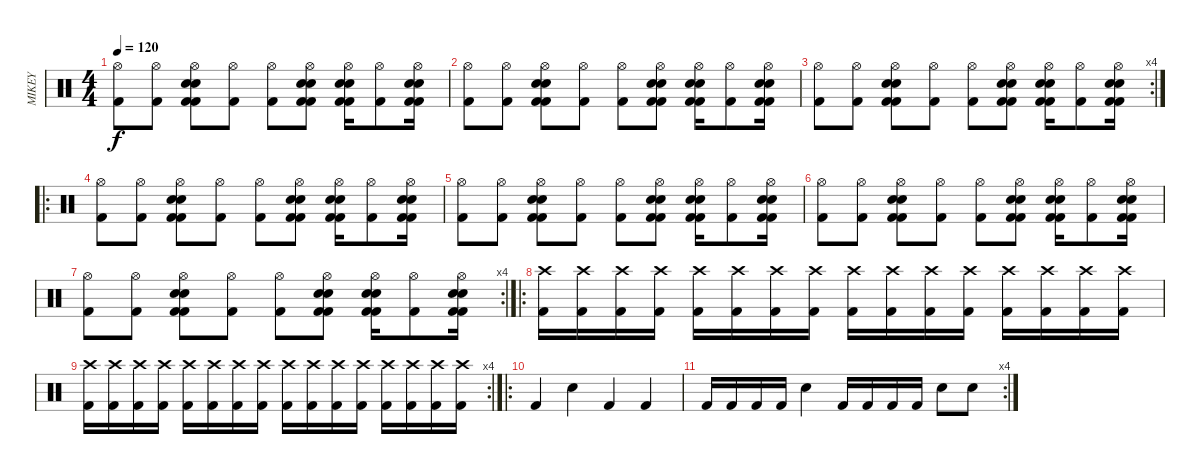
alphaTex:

\track ("MIKEY" "MIKEY") {instrument percussion}
\staff {score}
\articulation defaults
\ts (4 4)
\tempo 120
\clef neutral
\ks c
("Kick (hit) 2" "Hi-Hat (open)").8{dy f} ("Kick (hit) 2" "Hi-Hat (open)").8 ("Snare (hit) 2" "Kick (hit) 2" "Snare (hit) 2" "Kick (hit) 2" "Hi-Hat (open)").8 ("Kick (hit) 2" "Hi-Hat (open)").8 ("Kick (hit) 2" "Hi-Hat (open)").8 ("Snare (hit) 2" "Snare (hit) 2" "Kick (hit) 2" "Kick (hit) 2" "Hi-Hat (open)").8 ("Snare (hit) 2" "Snare (hit) 2" "Kick (hit) 2" "Kick (hit) 2" "Hi-Hat (open)").16 ("Kick (hit) 2" "Hi-Hat (open)").8 ("Snare (hit) 2" "Snare (hit) 2" "Kick (hit) 2" "Kick (hit) 2" "Hi-Hat (open)").16 |
("Kick (hit) 2" "Hi-Hat (open)").8 ("Kick (hit) 2" "Hi-Hat (open)").8 ("Snare (hit) 2" "Kick (hit) 2" "Snare (hit) 2" "Kick (hit) 2" "Hi-Hat (open)").8 ("Kick (hit) 2" "Hi-Hat (open)").8 ("Kick (hit) 2" "Hi-Hat (open)").8 ("Snare (hit) 2" "Snare (hit) 2" "Kick (hit) 2" "Kick (hit) 2" "Hi-Hat (open)").8 ("Snare (hit) 2" "Snare (hit) 2" "Kick (hit) 2" "Kick (hit) 2" "Hi-Hat (open)").16 ("Kick (hit) 2" "Hi-Hat (open)").8 ("Snare (hit) 2" "Snare (hit) 2" "Kick (hit) 2" "Kick (hit) 2" "Hi-Hat (open)").16 |
\rc 4
("Kick (hit) 2" "Hi-Hat (open)").8 ("Kick (hit) 2" "Hi-Hat (open)").8 ("Snare (hit) 2" "Kick (hit) 2" "Snare (hit) 2" "Kick (hit) 2" "Hi-Hat (open)").8 ("Kick (hit) 2" "Hi-Hat (open)").8 ("Kick (hit) 2" "Hi-Hat (open)").8 ("Snare (hit) 2" "Snare (hit) 2" "Kick (hit) 2" "Kick (hit) 2" "Hi-Hat (open)").8 ("Snare (hit) 2" "Snare (hit) 2" "Kick (hit) 2" "Kick (hit) 2" "Hi-Hat (open)").16 ("Kick (hit) 2" "Hi-Hat (open)").8 ("Snare (hit) 2" "Snare (hit) 2" "Kick (hit) 2" "Kick (hit) 2" "Hi-Hat (open)").16 |
\ro
("Kick (hit) 2" "Hi-Hat (open)").8 ("Kick (hit) 2" "Hi-Hat (open)").8 ("Snare (hit) 2" "Kick (hit) 2" "Snare (hit) 2" "Kick (hit) 2" "Hi-Hat (open)").8 ("Kick (hit) 2" "Hi-Hat (open)").8 ("Kick (hit) 2" "Hi-Hat (open)").8 ("Snare (hit) 2" "Snare (hit) 2" "Kick (hit) 2" "Kick (hit) 2" "Hi-Hat (open)").8 ("Snare (hit) 2" "Snare (hit) 2" "Kick (hit) 2" "Kick (hit) 2" "Hi-Hat (open)").16 ("Kick (hit) 2" "Hi-Hat (open)").8 ("Snare (hit) 2" "Snare (hit) 2" "Kick (hit) 2" "Kick (hit) 2" "Hi-Hat (open)").16 |
("Kick (hit) 2" "Hi-Hat (open)").8 ("Kick (hit) 2" "Hi-Hat (open)").8 ("Snare (hit) 2" "Kick (hit) 2" "Snare (hit) 2" "Kick (hit) 2" "Hi-Hat (open)").8 ("Kick (hit) 2" "Hi-Hat (open)").8 ("Kick (hit) 2" "Hi-Hat (open)").8 ("Snare (hit) 2" "Snare (hit) 2" "Kick (hit) 2" "Kick (hit) 2" "Hi-Hat (open)").8 ("Snare (hit) 2" "Snare (hit) 2" "Kick (hit) 2" "Kick (hit) 2" "Hi-Hat (open)").16 ("Kick (hit) 2" "Hi-Hat (open)").8 ("Snare (hit) 2" "Snare (hit) 2" "Kick (hit) 2" "Kick (hit) 2" "Hi-Hat (open)").16 |
("Kick (hit) 2" "Hi-Hat (open)").8 ("Kick (hit) 2" "Hi-Hat (open)").8 ("Snare (hit) 2" "Kick (hit) 2" "Snare (hit) 2" "Kick (hit) 2" "Hi-Hat (open)").8 ("Kick (hit) 2" "Hi-Hat (open)").8 ("Kick (hit) 2" "Hi-Hat (open)").8 ("Snare (hit) 2" "Snare (hit) 2" "Kick (hit) 2" "Kick (hit) 2" "Hi-Hat (open)").8 ("Snare (hit) 2" "Snare (hit) 2" "Kick (hit) 2" "Kick (hit) 2" "Hi-Hat (open)").16 ("Kick (hit) 2" "Hi-Hat (open)").8 ("Snare (hit) 2" "Snare (hit) 2" "Kick (hit) 2" "Kick (hit) 2" "Hi-Hat (open)").16 |
\rc 4
("Kick (hit) 2" "Hi-Hat (open)").8 ("Kick (hit) 2" "Hi-Hat (open)").8 ("Snare (hit) 2" "Kick (hit) 2" "Snare (hit) 2" "Kick (hit) 2" "Hi-Hat (open)").8 ("Kick (hit) 2" "Hi-Hat (open)").8 ("Kick (hit) 2" "Hi-Hat (open)").8 ("Snare (hit) 2" "Snare (hit) 2" "Kick (hit) 2" "Kick (hit) 2" "Hi-Hat (open)").8 ("Snare (hit) 2" "Snare (hit) 2" "Kick (hit) 2" "Kick (hit) 2" "Hi-Hat (open)").16 ("Kick (hit) 2" "Hi-Hat (open)").8 ("Snare (hit) 2" "Snare (hit) 2" "Kick (hit) 2" "Kick (hit) 2" "Hi-Hat (open)").16 |
\ro
("Kick (hit) 2" "Crash high (hit)").16 ("Kick (hit) 2" "Crash high (hit)").16 ("Kick (hit) 2" "Crash high (hit)").16 ("Kick (hit) 2" "Crash high (hit)").16 ("Kick (hit) 2" "Crash high (hit)").16 ("Kick (hit) 2" "Crash high (hit)").16 ("Kick (hit) 2" "Crash high (hit)").16 ("Kick (hit) 2" "Crash high (hit)").16 ("Kick (hit) 2" "Crash high (hit)").16 ("Kick (hit) 2" "Crash high (hit)").16 ("Kick (hit) 2" "Crash high (hit)").16 ("Kick (hit) 2" "Crash high (hit)").16 ("Kick (hit) 2" "Crash high (hit)").16 ("Kick (hit) 2" "Crash high (hit)").16 ("Kick (hit) 2" "Crash high (hit)").16 ("Kick (hit) 2" "Crash high (hit)").16 |
\rc 4
("Kick (hit) 2" "Crash high (hit)").16 ("Kick (hit) 2" "Crash high (hit)").16 ("Kick (hit) 2" "Crash high (hit)").16 ("Kick (hit) 2" "Crash high (hit)").16 ("Kick (hit) 2" "Crash high (hit)").16 ("Kick (hit) 2" "Crash high (hit)").16 ("Kick (hit) 2" "Crash high (hit)").16 ("Kick (hit) 2" "Crash high (hit)").16 ("Kick (hit) 2" "Crash high (hit)").16 ("Kick (hit) 2" "Crash high (hit)").16 ("Kick (hit) 2" "Crash high (hit)").16 ("Kick (hit) 2" "Crash high (hit)").16 ("Kick (hit) 2" "Crash high (hit)").16 ("Kick (hit) 2" "Crash high (hit)").16 ("Kick (hit) 2" "Crash high (hit)").16 ("Kick (hit) 2" "Crash high (hit)").16 |
\ro "Kick (hit) 2".4 "Snare (hit) 2".4 "Kick (hit) 2".4 "Kick (hit) 2".4
|
\rc 4 "Kick (hit) 2".16 "Kick (hit) 2".16 "Kick (hit) 2".16 "Kick (hit) 2".16 "Snare (hit) 2".4 "Kick (hit) 2".16 "Kick (hit) 2".16 "Kick (hit) 2".16 "Kick (hit) 2".16 "Snare (hit) 2".8 "Snare (hit) 2".8
